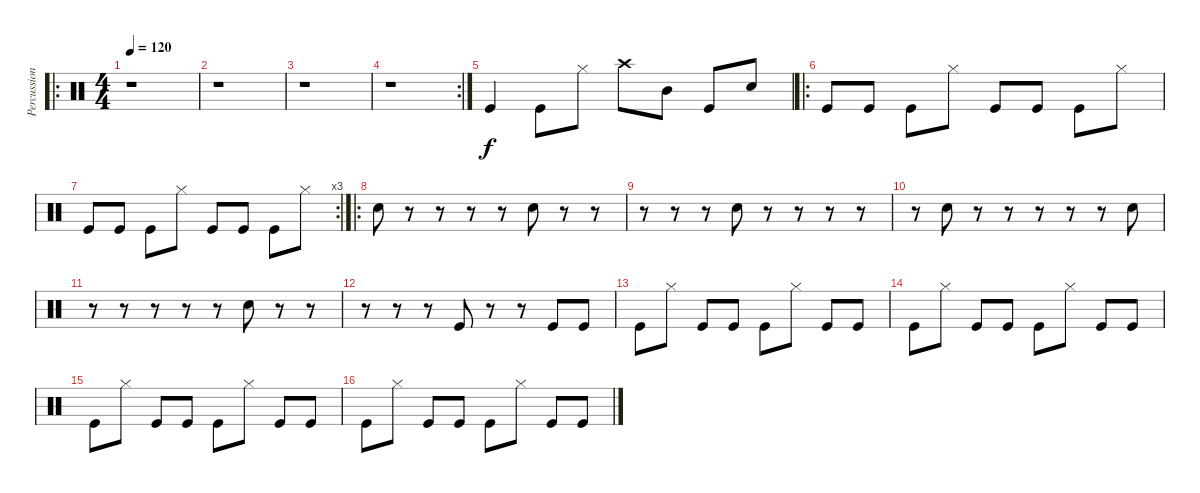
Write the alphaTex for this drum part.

\track ("Percussions" "Percussion") {instrument percussion}
\staff {score}
\articulation defaults
\ro
\ts (4 4)
\tempo 120
\clef neutral
\ks c
r.1{dy f} |
r.1 |
r.1 |
\rc 2
r.1 |
"Kick (hit)".4 "Kick (hit)".8 "Hi-Hat (closed)".8 "Crash high (hit)".8 "Mid Tom (hit)".8 "Kick (hit)".8 "Snare (hit) 2".8 |
\ro "Kick (hit)".8 "Kick (hit)".8 "Kick (hit)".8 "Hi-Hat (closed)".8 "Kick (hit)".8 "Kick (hit)".8 "Kick (hit)".8 "Hi-Hat (closed)".8
|
\rc 3 "Kick (hit)".8 "Kick (hit)".8 "Kick (hit)".8 "Hi-Hat (closed)".8 "Kick (hit)".8 "Kick (hit)".8 "Kick (hit)".8 "Hi-Hat (closed)".8
|
\ro "Hand Clap (hit)".8
r.8 r.8 r.8 r.8 "Hand Clap (hit)".8 r.8 r.8 |
r.8 r.8 r.8 "Hand Clap (hit)".8 r.8 r.8 r.8 r.8 |
r.8 "Hand Clap (hit)".8 r.8 r.8 r.8 r.8 r.8 "Hand Clap (hit)".8 |
r.8 r.8 r.8 r.8 r.8 "Hand Clap (hit)".8 r.8 r.8 |
r.8 r.8 r.8 "Kick (hit)".8 r.8 r.8 "Kick (hit)".8 "Kick (hit)".8 |
"Kick (hit)".8 "Hi-Hat (closed)".8 "Kick (hit)".8 "Kick (hit)".8 "Kick (hit)".8 "Hi-Hat (closed)".8 "Kick (hit)".8 "Kick (hit)".8 |
"Kick (hit)".8 "Hi-Hat (closed)".8 "Kick (hit)".8 "Kick (hit)".8 "Kick (hit)".8 "Hi-Hat (closed)".8 "Kick (hit)".8 "Kick (hit)".8 |
"Kick (hit)".8 "Hi-Hat (closed)".8 "Kick (hit)".8 "Kick (hit)".8 "Kick (hit)".8 "Hi-Hat (closed)".8 "Kick (hit)".8 "Kick (hit)".8 |
"Kick (hit)".8 "Hi-Hat (closed)".8 "Kick (hit)".8 "Kick (hit)".8 "Kick (hit)".8 "Hi-Hat (closed)".8 "Kick (hit)".8 "Kick (hit)".8
